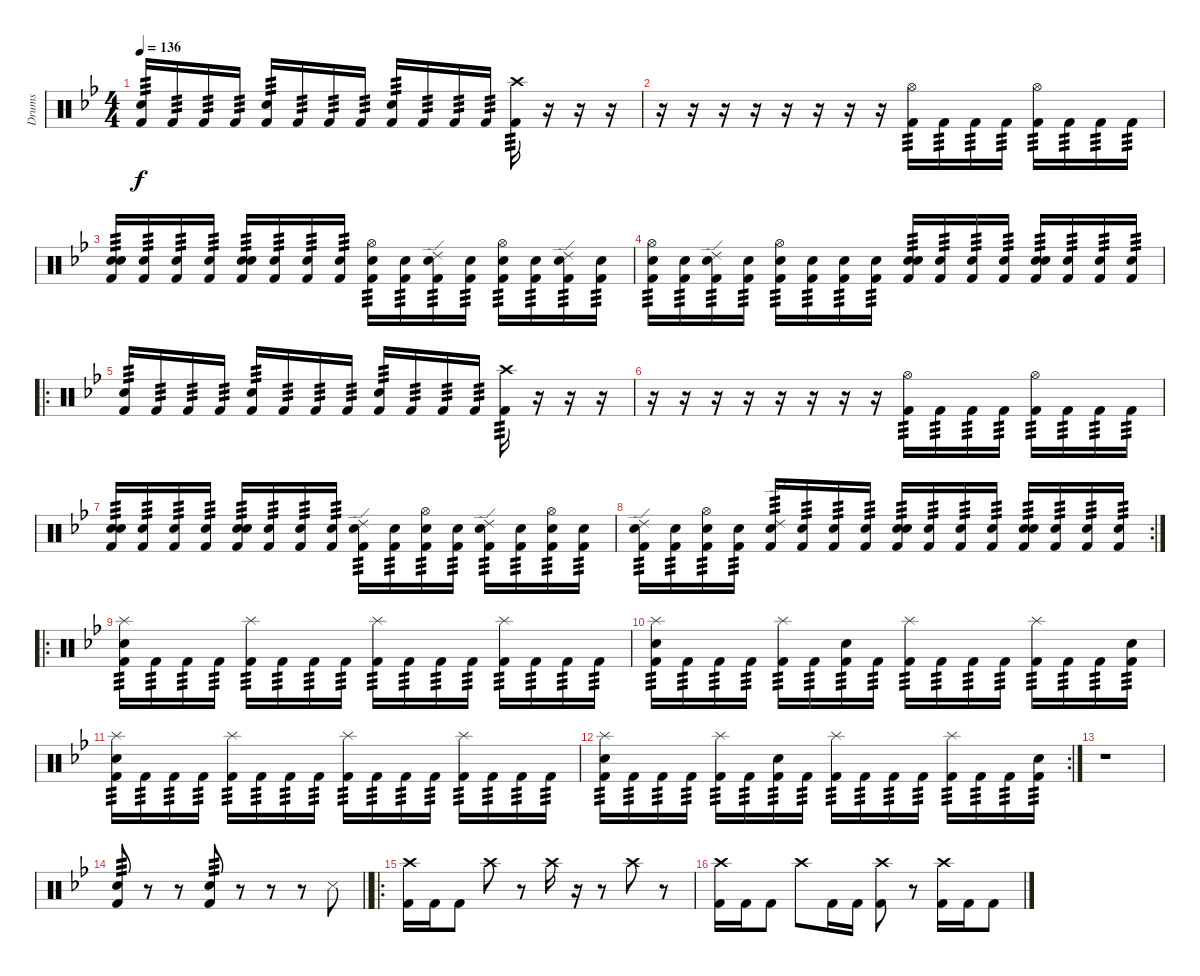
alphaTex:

\track ("Drums" "Drums") {instrument percussion}
\staff {score}
\articulation defaults
\ts (4 4)
\tempo 136
\clef neutral
\ks bb
("Electric Snare (hit)" "Kick (hit) 2").16{tp 3 dy f} "Kick (hit) 2".16{tp 3} "Kick (hit) 2".16{tp 3} "Kick (hit) 2".16{tp 3} ("Electric Snare (hit)" "Kick (hit) 2").16{tp 3} "Kick (hit) 2".16{tp 3} "Kick (hit) 2".16{tp 3} "Kick (hit) 2".16{tp 3} ("Electric Snare (hit)" "Kick (hit) 2").16{tp 3} "Kick (hit) 2".16{tp 3} "Kick (hit) 2".16{tp 3} "Kick (hit) 2".16{tp 3} ("Crash high (hit)" "Kick (hit) 2").16{tp 3} r.16 r.16 r.16 |
r.16 r.16 r.16 r.16 r.16 r.16 r.16 r.16 ("Hi-Hat (open)" "Kick (hit) 2").16{tp 3} "Kick (hit) 2".16{tp 3} "Kick (hit) 2".16{tp 3} "Kick (hit) 2".16{tp 3} ("Hi-Hat (open)" "Kick (hit) 2").16{tp 3} "Kick (hit) 2".16{tp 3} "Kick (hit) 2".16{tp 3} "Kick (hit) 2".16{tp 3} |
("Electric Snare (hit)" "Electric Snare (hit)" "Kick (hit) 2").16{tp 3} ("Electric Snare (hit)" "Kick (hit) 2").16{tp 3} ("Electric Snare (hit)" "Kick (hit) 2").16{tp 3} ("Electric Snare (hit)" "Kick (hit) 2").16{tp 3} ("Electric Snare (hit)" "Electric Snare (hit)" "Kick (hit) 2").16{tp 3} ("Electric Snare (hit)" "Kick (hit) 2").16{tp 3} ("Electric Snare (hit)" "Kick (hit) 2").16{tp 3} ("Electric Snare (hit)" "Kick (hit) 2").16{tp 3} ("Hi-Hat (open)" "Electric Snare (hit)" "Kick (hit) 2").16{tp 3} ("Electric Snare (hit)" "Kick (hit) 2").16{tp 3} ("Ride (edge) 2" "Electric Snare (hit)" "Kick (hit) 2").16{tp 3} ("Electric Snare (hit)" "Kick (hit) 2").16{tp 3} ("Hi-Hat (open)" "Electric Snare (hit)" "Kick (hit) 2").16{tp 3} ("Electric Snare (hit)" "Kick (hit) 2").16{tp 3} ("Ride (edge) 2" "Electric Snare (hit)" "Kick (hit) 2").16{tp 3} ("Electric Snare (hit)" "Kick (hit) 2").16{tp 3} |
("Hi-Hat (open)" "Electric Snare (hit)" "Kick (hit) 2").16{tp 3} ("Electric Snare (hit)" "Kick (hit) 2").16{tp 3} ("Ride (edge) 2" "Electric Snare (hit)" "Kick (hit) 2").16{tp 3} ("Electric Snare (hit)" "Kick (hit) 2").16{tp 3} ("Hi-Hat (open)" "Electric Snare (hit)" "Kick (hit) 2").16{tp 3} ("Electric Snare (hit)" "Kick (hit) 2").16{tp 3} ("Electric Snare (hit)" "Kick (hit) 2").16{tp 3} ("Electric Snare (hit)" "Kick (hit) 2").16{tp 3} ("Electric Snare (hit)" "Electric Snare (hit)" "Kick (hit) 2").16{tp 3} ("Electric Snare (hit)" "Kick (hit) 2").16{tp 3} ("Electric Snare (hit)" "Kick (hit) 2").16{tp 3} ("Electric Snare (hit)" "Kick (hit) 2").16{tp 3} ("Electric Snare (hit)" "Electric Snare (hit)" "Kick (hit) 2").16{tp 3} ("Electric Snare (hit)" "Kick (hit) 2").16{tp 3} ("Electric Snare (hit)" "Kick (hit) 2").16{tp 3} ("Electric Snare (hit)" "Kick (hit) 2").16{tp 3} |
\ro
("Electric Snare (hit)" "Kick (hit) 2").16{tp 3} "Kick (hit) 2".16{tp 3} "Kick (hit) 2".16{tp 3} "Kick (hit) 2".16{tp 3} ("Electric Snare (hit)" "Kick (hit) 2").16{tp 3} "Kick (hit) 2".16{tp 3} "Kick (hit) 2".16{tp 3} "Kick (hit) 2".16{tp 3} ("Electric Snare (hit)" "Kick (hit) 2").16{tp 3} "Kick (hit) 2".16{tp 3} "Kick (hit) 2".16{tp 3} "Kick (hit) 2".16{tp 3} ("Crash high (hit)" "Kick (hit) 2").16{tp 3} r.16 r.16 r.16 |
r.16 r.16 r.16 r.16 r.16 r.16 r.16 r.16 ("Hi-Hat (open)" "Kick (hit) 2").16{tp 3} "Kick (hit) 2".16{tp 3} "Kick (hit) 2".16{tp 3} "Kick (hit) 2".16{tp 3} ("Hi-Hat (open)" "Kick (hit) 2").16{tp 3} "Kick (hit) 2".16{tp 3} "Kick (hit) 2".16{tp 3} "Kick (hit) 2".16{tp 3} |
("Electric Snare (hit)" "Electric Snare (hit)" "Kick (hit) 2").16{tp 3} ("Electric Snare (hit)" "Kick (hit) 2").16{tp 3} ("Electric Snare (hit)" "Kick (hit) 2").16{tp 3} ("Electric Snare (hit)" "Kick (hit) 2").16{tp 3} ("Electric Snare (hit)" "Electric Snare (hit)" "Kick (hit) 2").16{tp 3} ("Electric Snare (hit)" "Kick (hit) 2").16{tp 3} ("Electric Snare (hit)" "Kick (hit) 2").16{tp 3} ("Electric Snare (hit)" "Kick (hit) 2").16{tp 3} ("Ride (edge) 2" "Electric Snare (hit)" "Kick (hit) 2").16{tp 3} ("Electric Snare (hit)" "Kick (hit) 2").16{tp 3} ("Hi-Hat (open)" "Electric Snare (hit)" "Kick (hit) 2").16{tp 3} ("Electric Snare (hit)" "Kick (hit) 2").16{tp 3} ("Ride (edge) 2" "Electric Snare (hit)" "Kick (hit) 2").16{tp 3} ("Electric Snare (hit)" "Kick (hit) 2").16{tp 3} ("Hi-Hat (open)" "Electric Snare (hit)" "Kick (hit) 2").16{tp 3} ("Electric Snare (hit)" "Kick (hit) 2").16{tp 3} |
\rc 2
("Ride (edge) 2" "Electric Snare (hit)" "Kick (hit) 2").16{tp 3} ("Electric Snare (hit)" "Kick (hit) 2").16{tp 3} ("Hi-Hat (open)" "Electric Snare (hit)" "Kick (hit) 2").16{tp 3} ("Electric Snare (hit)" "Kick (hit) 2").16{tp 3} ("Ride (edge) 2" "Electric Snare (hit)" "Kick (hit) 2").16{tp 3} ("Electric Snare (hit)" "Kick (hit) 2").16{tp 3} ("Electric Snare (hit)" "Kick (hit) 2").16{tp 3} ("Electric Snare (hit)" "Kick (hit) 2").16{tp 3} ("Electric Snare (hit)" "Electric Snare (hit)" "Kick (hit) 2").16{tp 3} ("Electric Snare (hit)" "Kick (hit) 2").16{tp 3} ("Electric Snare (hit)" "Kick (hit) 2").16{tp 3} ("Electric Snare (hit)" "Kick (hit) 2").16{tp 3} ("Electric Snare (hit)" "Electric Snare (hit)" "Kick (hit) 2").16{tp 3} ("Electric Snare (hit)" "Kick (hit) 2").16{tp 3} ("Electric Snare (hit)" "Kick (hit) 2").16{tp 3} ("Electric Snare (hit)" "Kick (hit) 2").16{tp 3} |
\ro
("Splash (hit)" "Electric Snare (hit)" "Kick (hit) 2").16{tp 3} "Kick (hit) 2".16{tp 3} "Kick (hit) 2".16{tp 3} "Kick (hit) 2".16{tp 3} ("Splash (hit)" "Kick (hit) 2").16{tp 3} "Kick (hit) 2".16{tp 3} "Kick (hit) 2".16{tp 3} "Kick (hit) 2".16{tp 3} ("Splash (hit)" "Kick (hit) 2").16{tp 3} "Kick (hit) 2".16{tp 3} "Kick (hit) 2".16{tp 3} "Kick (hit) 2".16{tp 3} ("Splash (hit)" "Kick (hit) 2").16{tp 3} "Kick (hit) 2".16{tp 3} "Kick (hit) 2".16{tp 3} "Kick (hit) 2".16{tp 3} |
("Splash (hit)" "Electric Snare (hit)" "Kick (hit) 2").16{tp 3} "Kick (hit) 2".16{tp 3} "Kick (hit) 2".16{tp 3} "Kick (hit) 2".16{tp 3} ("Splash (hit)" "Kick (hit) 2").16{tp 3} "Kick (hit) 2".16{tp 3} ("Electric Snare (hit)" "Kick (hit) 2").16{tp 3} "Kick (hit) 2".16{tp 3} ("Splash (hit)" "Kick (hit) 2").16{tp 3} "Kick (hit) 2".16{tp 3} "Kick (hit) 2".16{tp 3} "Kick (hit) 2".16{tp 3} ("Splash (hit)" "Kick (hit) 2").16{tp 3} "Kick (hit) 2".16{tp 3} "Kick (hit) 2".16{tp 3} ("Electric Snare (hit)" "Kick (hit) 2").16{tp 3} |
("Splash (hit)" "Electric Snare (hit)" "Kick (hit) 2").16{tp 3} "Kick (hit) 2".16{tp 3} "Kick (hit) 2".16{tp 3} "Kick (hit) 2".16{tp 3} ("Splash (hit)" "Kick (hit) 2").16{tp 3} "Kick (hit) 2".16{tp 3} "Kick (hit) 2".16{tp 3} "Kick (hit) 2".16{tp 3} ("Splash (hit)" "Kick (hit) 2").16{tp 3} "Kick (hit) 2".16{tp 3} "Kick (hit) 2".16{tp 3} "Kick (hit) 2".16{tp 3} ("Splash (hit)" "Kick (hit) 2").16{tp 3} "Kick (hit) 2".16{tp 3} "Kick (hit) 2".16{tp 3} "Kick (hit) 2".16{tp 3} |
\rc 2
("Splash (hit)" "Electric Snare (hit)" "Kick (hit) 2").16{tp 3} "Kick (hit) 2".16{tp 3} "Kick (hit) 2".16{tp 3} "Kick (hit) 2".16{tp 3} ("Splash (hit)" "Kick (hit) 2").16{tp 3} "Kick (hit) 2".16{tp 3} ("Electric Snare (hit)" "Kick (hit) 2").16{tp 3} "Kick (hit) 2".16{tp 3} ("Splash (hit)" "Kick (hit) 2").16{tp 3} "Kick (hit) 2".16{tp 3} "Kick (hit) 2".16{tp 3} "Kick (hit) 2".16{tp 3} ("Splash (hit)" "Kick (hit) 2").16{tp 3} "Kick (hit) 2".16{tp 3} "Kick (hit) 2".16{tp 3} ("Electric Snare (hit)" "Kick (hit) 2").16{tp 3} |
r.1 |
\barLineRight lightlight
("Electric Snare (hit)" "Kick (hit) 2").8{tp 3} r.8 r.8 ("Electric Snare (hit)" "Kick (hit) 2").8{tp 3} r.8 r.8 r.8 "Snare (side stick) 3".8 |
\ro
("Crash high (hit)" "Kick (hit) 2").16 "Kick (hit) 2".16 "Kick (hit) 2".8 "Crash high (hit)".8 r.8 "Crash high (hit)".16 r.16 r.8 "Crash high (hit)".8 r.8 |
("Crash high (hit)" "Kick (hit) 2").16 "Kick (hit) 2".16 "Kick (hit) 2".8 "Crash high (hit)".8 "Kick (hit) 2".16 "Kick (hit) 2".16 ("Crash high (hit)" "Kick (hit) 2").8 r.8 ("Crash high (hit)" "Kick (hit) 2").16 "Kick (hit) 2".16 "Kick (hit) 2".8
